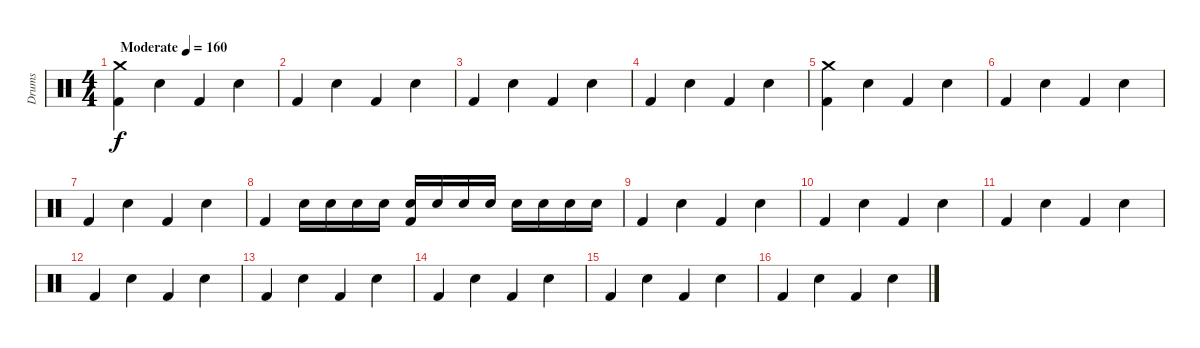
\track ("Drums" "Drums") {instrument percussion}
\staff {score}
\articulation defaults
\ts (4 4)
\tempo (160 "Moderate")
\clef neutral
\ks c
("Kick (hit) 2" "Crash medium (hit)").4{dy f} "Snare (hit) 2".4 "Kick (hit) 2".4 "Snare (hit) 2".4 |
"Kick (hit) 2".4 "Snare (hit) 2".4 "Kick (hit) 2".4 "Snare (hit) 2".4 |
"Kick (hit) 2".4 "Snare (hit) 2".4 "Kick (hit) 2".4 "Snare (hit) 2".4 |
"Kick (hit) 2".4 "Snare (hit) 2".4 "Kick (hit) 2".4 "Snare (hit) 2".4 |
("Kick (hit) 2" "Crash medium (hit)").4 "Snare (hit) 2".4 "Kick (hit) 2".4 "Snare (hit) 2".4 |
"Kick (hit) 2".4 "Snare (hit) 2".4 "Kick (hit) 2".4 "Snare (hit) 2".4 |
"Kick (hit) 2".4 "Snare (hit) 2".4 "Kick (hit) 2".4 "Snare (hit) 2".4 |
"Kick (hit) 2".4 "Snare (hit) 2".16 "Snare (hit) 2".16 "Snare (hit) 2".16 "Snare (hit) 2".16 ("Snare (hit) 2" "Kick (hit) 2").16 "Snare (hit) 2".16 "Snare (hit) 2".16 "Snare (hit) 2".16 "Snare (hit) 2".16 "Snare (hit) 2".16 "Snare (hit) 2".16 "Snare (hit) 2".16 |
"Kick (hit) 2".4 "Snare (hit) 2".4 "Kick (hit) 2".4 "Snare (hit) 2".4 |
"Kick (hit) 2".4 "Snare (hit) 2".4 "Kick (hit) 2".4 "Snare (hit) 2".4 |
"Kick (hit) 2".4 "Snare (hit) 2".4 "Kick (hit) 2".4 "Snare (hit) 2".4 |
"Kick (hit) 2".4 "Snare (hit) 2".4 "Kick (hit) 2".4 "Snare (hit) 2".4 |
"Kick (hit) 2".4 "Snare (hit) 2".4 "Kick (hit) 2".4 "Snare (hit) 2".4 |
"Kick (hit) 2".4 "Snare (hit) 2".4 "Kick (hit) 2".4 "Snare (hit) 2".4 |
"Kick (hit) 2".4 "Snare (hit) 2".4 "Kick (hit) 2".4 "Snare (hit) 2".4 |
"Kick (hit) 2".4 "Snare (hit) 2".4 "Kick (hit) 2".4 "Snare (hit) 2".4
